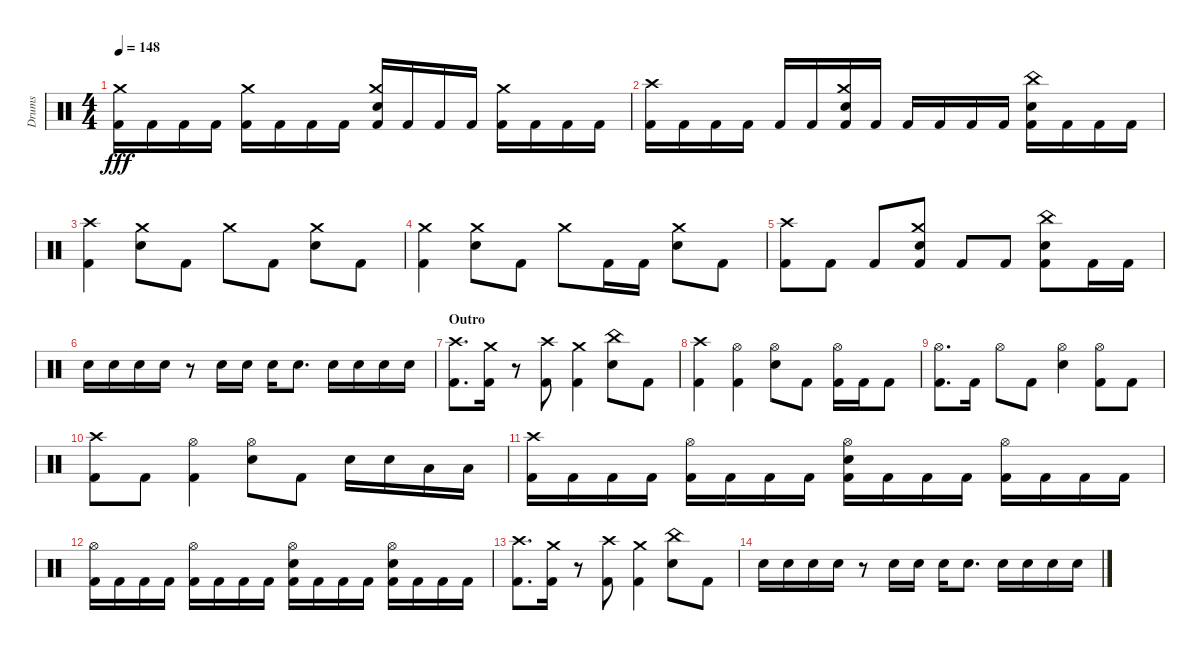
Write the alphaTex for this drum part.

\track ("Drums" "Drums") {instrument percussion}
\staff {score}
\articulation defaults
\ts (4 4)
\tempo 148
\clef neutral
\ks aminor
("Kick (hit) 2" "Crash medium (hit)").16{dy fff} "Kick (hit) 2".16 "Kick (hit) 2".16 "Kick (hit) 2".16 ("Crash medium (hit)" "Kick (hit) 2").16 "Kick (hit) 2".16 "Kick (hit) 2".16 "Kick (hit) 2".16 ("Snare (hit) 2" "Crash medium (hit)" "Kick (hit) 2").16 "Kick (hit) 2".16 "Kick (hit) 2".16 "Kick (hit) 2".16 ("Crash medium (hit)" "Kick (hit) 2").16 "Kick (hit) 2".16 "Kick (hit) 2".16 "Kick (hit) 2".16 |
("Kick (hit) 2" "Crash high (hit)").16 "Kick (hit) 2".16 "Kick (hit) 2".16 "Kick (hit) 2".16 "Kick (hit) 2".16 "Kick (hit) 2".16 ("Crash medium (hit)" "Snare (hit) 2" "Kick (hit) 2").16 "Kick (hit) 2".16 "Kick (hit) 2".16 "Kick (hit) 2".16 "Kick (hit) 2".16 "Kick (hit) 2".16 ("Snare (hit) 2" "China (hit)" "Kick (hit) 2").16 "Kick (hit) 2".16 "Kick (hit) 2".16 "Kick (hit) 2".16 |
("Crash high (hit)" "Kick (hit) 2").4 ("Snare (hit) 2" "Crash medium (hit)").8 "Kick (hit) 2".8 "Crash medium (hit)".8 "Kick (hit) 2".8 ("Snare (hit) 2" "Crash medium (hit)").8 "Kick (hit) 2".8 |
("Crash medium (hit)" "Kick (hit) 2").4 ("Crash medium (hit)" "Snare (hit) 2").8 "Kick (hit) 2".8 "Crash medium (hit)".8 "Kick (hit) 2".16 "Kick (hit) 2".16 ("Snare (hit) 2" "Crash medium (hit)").8 "Kick (hit) 2".8 |
("Crash high (hit)" "Kick (hit) 2").8 "Kick (hit) 2".8 "Kick (hit) 2".8 ("Kick (hit) 2" "Snare (hit) 2" "Crash medium (hit)").8 "Kick (hit) 2".8 "Kick (hit) 2".8 ("Kick (hit) 2" "China (hit)" "Snare (hit) 2").8 "Kick (hit) 2".16 "Kick (hit) 2".16 |
"Snare (hit) 2".16 "Snare (hit) 2".16 "Snare (hit) 2".16 "Snare (hit) 2".16 r.8 "Snare (hit) 2".16 "Snare (hit) 2".16 "Snare (hit) 2".16 "Snare (hit) 2".8{d} "Snare (hit) 2".16 "Snare (hit) 2".16 "Snare (hit) 2".16 "Snare (hit) 2".16 |
\section ("" "Outro")
("Crash high (hit)" "Kick (hit) 2").8{d} ("Kick (hit) 2" "Crash medium (hit)").16 r.8 ("Crash high (hit)" "Kick (hit) 2").8 ("Crash medium (hit)" "Kick (hit) 2").4 ("Snare (hit) 2" "China (hit)").8 "Kick (hit) 2".8 |
("Kick (hit) 2" "Crash high (hit)").4 ("Hi-Hat (open)" "Kick (hit) 2").4 ("Hi-Hat (open)" "Snare (hit) 2").8 "Kick (hit) 2".8 ("Hi-Hat (open)" "Kick (hit) 2").16 "Kick (hit) 2".16 "Kick (hit) 2".8 |
("Hi-Hat (open)" "Kick (hit) 2").8{d} "Kick (hit) 2".16 "Hi-Hat (open)".8 "Kick (hit) 2".8 ("Hi-Hat (open)" "Snare (hit) 2").4 ("Kick (hit) 2" "Hi-Hat (open)").8 "Kick (hit) 2".8 |
("Crash high (hit)" "Kick (hit) 2").8 "Kick (hit) 2".8 ("Hi-Hat (open)" "Kick (hit) 2").4 ("Hi-Hat (open)" "Snare (hit) 2").8 "Kick (hit) 2".8 "Snare (hit) 2".16 "Snare (hit) 2".16 "Low Floor Tom (hit)".16 "Low Floor Tom (hit)".16 |
("Crash high (hit)" "Kick (hit) 2").16 "Kick (hit) 2".16 "Kick (hit) 2".16 "Kick (hit) 2".16 ("Kick (hit) 2" "Hi-Hat (open)").16 "Kick (hit) 2".16 "Kick (hit) 2".16 "Kick (hit) 2".16 ("Snare (hit) 2" "Hi-Hat (open)" "Kick (hit) 2").16 "Kick (hit) 2".16 "Kick (hit) 2".16 "Kick (hit) 2".16 ("Kick (hit) 2" "Hi-Hat (open)").16 "Kick (hit) 2".16 "Kick (hit) 2".16 "Kick (hit) 2".16 |
("Hi-Hat (open)" "Kick (hit) 2").16 "Kick (hit) 2".16 "Kick (hit) 2".16 "Kick (hit) 2".16 ("Kick (hit) 2" "Hi-Hat (open)").16 "Kick (hit) 2".16 "Kick (hit) 2".16 "Kick (hit) 2".16 ("Hi-Hat (open)" "Kick (hit) 2" "Snare (hit) 2").16 "Kick (hit) 2".16 "Kick (hit) 2".16 "Kick (hit) 2".16 ("Hi-Hat (open)" "Snare (hit) 2" "Kick (hit) 2").16 "Kick (hit) 2".16 "Kick (hit) 2".16 "Kick (hit) 2".16 |
("Crash high (hit)" "Kick (hit) 2").8{d} ("Kick (hit) 2" "Crash medium (hit)").16 r.8 ("Kick (hit) 2" "Crash high (hit)").8 ("Kick (hit) 2" "Crash medium (hit)").4 ("Snare (hit) 2" "China (hit)").8 "Kick (hit) 2".8 |
"Snare (hit) 2".16 "Snare (hit) 2".16 "Snare (hit) 2".16 "Snare (hit) 2".16 r.8 "Snare (hit) 2".16 "Snare (hit) 2".16 "Snare (hit) 2".16 "Snare (hit) 2".8{d} "Snare (hit) 2".16 "Snare (hit) 2".16 "Snare (hit) 2".16 "Snare (hit) 2".16
